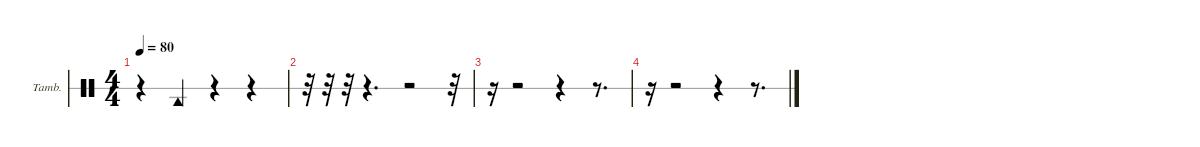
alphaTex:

\hideDynamics
\bracketExtendMode nobrackets
\firstSystemTrackNameOrientation horizontal
\otherSystemsTrackNameOrientation horizontal
\track ("Tambourine" "Tamb.") {instrument percussion}
\staff {score 1}
\articulation defaults
\ts (4 4)
\tempo 80
\clef neutral
\ks c
r.4{dy f} "Tambourine (hit)".4 r.4 r.4 |
r.32 r.32 r.32 r.4{d} r.2 r.32 |
r.16 r.2 r.4 r.8{d} |
r.16 r.2 r.4 r.8{d}
